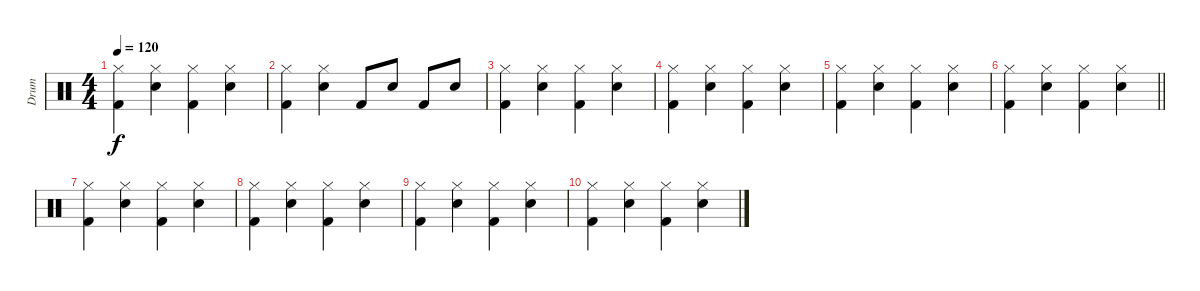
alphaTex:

\track ("Drum" "Drum") {instrument percussion}
\staff {score}
\articulation defaults
\ts (4 4)
\tempo 120
\clef neutral
\ks c
("Hi-Hat (closed)" "Kick (hit) 2").4{dy f} ("Hi-Hat (closed)" "Electric Snare (hit)").4 ("Hi-Hat (closed)" "Kick (hit) 2").4 ("Hi-Hat (closed)" "Electric Snare (hit)").4 |
("Hi-Hat (closed)" "Kick (hit) 2").4 ("Hi-Hat (closed)" "Electric Snare (hit)").4 "Kick (hit) 2".8 "Electric Snare (hit)".8 "Kick (hit) 2".8 "Electric Snare (hit)".8 |
("Hi-Hat (closed)" "Kick (hit) 2").4 ("Hi-Hat (closed)" "Electric Snare (hit)").4 ("Hi-Hat (closed)" "Kick (hit) 2").4 ("Hi-Hat (closed)" "Electric Snare (hit)").4 |
("Hi-Hat (closed)" "Kick (hit) 2").4 ("Hi-Hat (closed)" "Electric Snare (hit)").4 ("Hi-Hat (closed)" "Kick (hit) 2").4 ("Hi-Hat (closed)" "Electric Snare (hit)").4 |
("Hi-Hat (closed)" "Kick (hit) 2").4 ("Hi-Hat (closed)" "Electric Snare (hit)").4 ("Hi-Hat (closed)" "Kick (hit) 2").4 ("Hi-Hat (closed)" "Electric Snare (hit)").4 |
\barLineRight lightlight
("Hi-Hat (closed)" "Kick (hit) 2").4 ("Hi-Hat (closed)" "Electric Snare (hit)").4 ("Hi-Hat (closed)" "Kick (hit) 2").4 ("Hi-Hat (closed)" "Electric Snare (hit)").4 |
("Hi-Hat (closed)" "Kick (hit) 2").4 ("Hi-Hat (closed)" "Electric Snare (hit)").4 ("Hi-Hat (closed)" "Kick (hit) 2").4 ("Hi-Hat (closed)" "Electric Snare (hit)").4 |
("Hi-Hat (closed)" "Kick (hit) 2").4 ("Hi-Hat (closed)" "Electric Snare (hit)").4 ("Hi-Hat (closed)" "Kick (hit) 2").4 ("Hi-Hat (closed)" "Electric Snare (hit)").4 |
("Hi-Hat (closed)" "Kick (hit) 2").4 ("Hi-Hat (closed)" "Electric Snare (hit)").4 ("Hi-Hat (closed)" "Kick (hit) 2").4 ("Hi-Hat (closed)" "Electric Snare (hit)").4 |
("Hi-Hat (closed)" "Kick (hit) 2").4 ("Hi-Hat (closed)" "Electric Snare (hit)").4 ("Hi-Hat (closed)" "Kick (hit) 2").4 ("Hi-Hat (closed)" "Electric Snare (hit)").4
